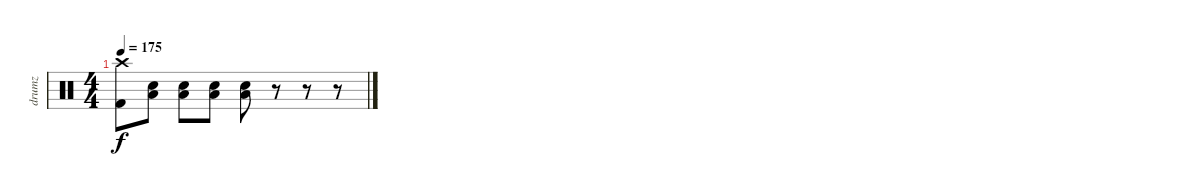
\track ("drumz" "drumz") {instrument percussion}
\staff {score}
\articulation defaults
\ts (4 4)
\tempo 175
\clef neutral
\ks c
("Crash high (hit)" "Kick (hit) 2").8{dy f} ("Low Floor Tom (hit)" "Electric Snare (hit)").8 ("Low Floor Tom (hit)" "Electric Snare (hit)").8 ("Low Floor Tom (hit)" "Electric Snare (hit)").8 ("Low Floor Tom (hit)" "Electric Snare (hit)").8 r.8 r.8 r.8
